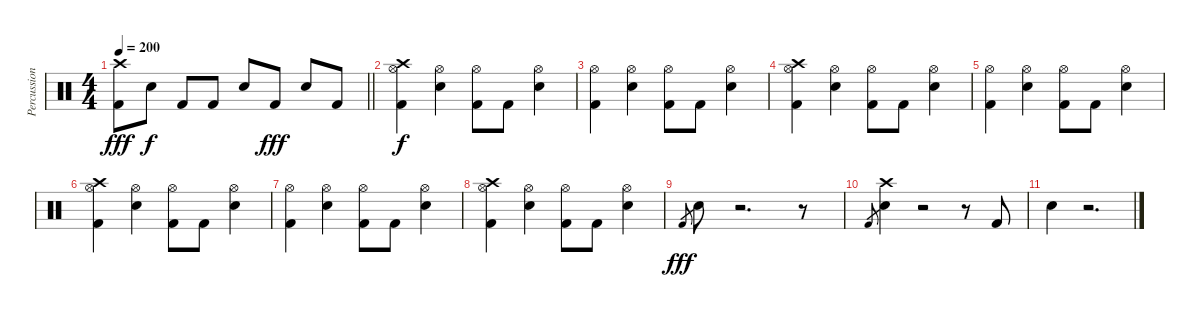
\track ("Percussion" "Percussion") {instrument percussion}
\staff {score}
\articulation defaults
\ts (4 4)
\tempo 200
\clef neutral
\barLineRight lightlight
\ks c
("Crash high (hit)" "Kick (hit) 2").8{dy fff} "Electric Snare (hit)".8{dy f} "Kick (hit) 2".8 "Kick (hit) 2".8 "Electric Snare (hit)".8 "Kick (hit) 2".8{dy fff} "Electric Snare (hit)".8 "Kick (hit) 2".8 |
("Crash high (hit)" "Hi-Hat (open)" "Kick (hit) 2").4{dy f} ("Hi-Hat (open)" "Electric Snare (hit)").4 ("Hi-Hat (open)" "Kick (hit) 2").8 "Kick (hit) 2".8 ("Hi-Hat (open)" "Electric Snare (hit)").4 |
("Hi-Hat (open)" "Kick (hit) 2").4 ("Hi-Hat (open)" "Electric Snare (hit)").4 ("Hi-Hat (open)" "Kick (hit) 2").8 "Kick (hit) 2".8 ("Hi-Hat (open)" "Electric Snare (hit)").4 |
("Crash high (hit)" "Hi-Hat (open)" "Kick (hit) 2").4 ("Hi-Hat (open)" "Electric Snare (hit)").4 ("Hi-Hat (open)" "Kick (hit) 2").8 "Kick (hit) 2".8 ("Hi-Hat (open)" "Electric Snare (hit)").4 |
("Hi-Hat (open)" "Kick (hit) 2").4 ("Hi-Hat (open)" "Electric Snare (hit)").4 ("Hi-Hat (open)" "Kick (hit) 2").8 "Kick (hit) 2".8 ("Hi-Hat (open)" "Electric Snare (hit)").4 |
("Crash high (hit)" "Hi-Hat (open)" "Kick (hit) 2").4 ("Hi-Hat (open)" "Electric Snare (hit)").4 ("Hi-Hat (open)" "Kick (hit) 2").8 "Kick (hit) 2".8 ("Hi-Hat (open)" "Electric Snare (hit)").4 |
("Hi-Hat (open)" "Kick (hit) 2").4 ("Hi-Hat (open)" "Electric Snare (hit)").4 ("Hi-Hat (open)" "Kick (hit) 2").8 "Kick (hit) 2".8 ("Hi-Hat (open)" "Electric Snare (hit)").4 |
("Crash high (hit)" "Hi-Hat (open)" "Kick (hit) 2").4 ("Hi-Hat (open)" "Electric Snare (hit)").4 ("Hi-Hat (open)" "Kick (hit) 2").8 "Kick (hit) 2".8 ("Hi-Hat (open)" "Electric Snare (hit)").4 |
"Kick (hit) 2".8{gr dy fff} "Electric Snare (hit)".8 r.2{d} r.8 |
"Kick (hit) 2".8{gr} ("Crash high (hit)" "Electric Snare (hit)").4 r.2 r.8 "Kick (hit) 2".8 |
"Electric Snare (hit)".4 r.2{d}
